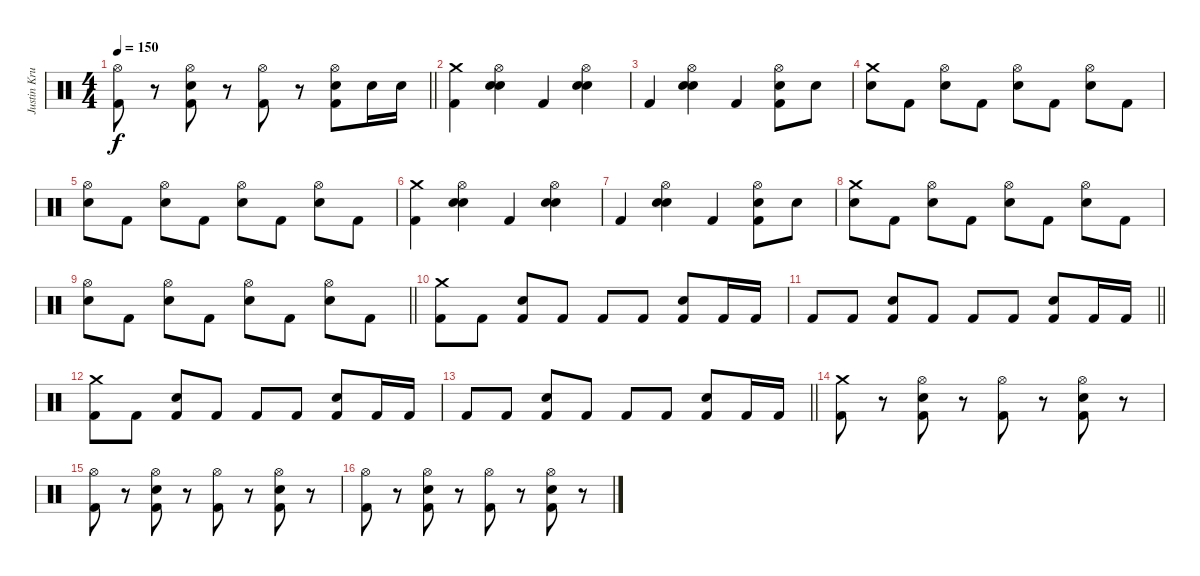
\track ("Justin Kruger" "Justin Kru") {instrument percussion}
\staff {score}
\articulation defaults
\ts (4 4)
\tempo 150
\clef neutral
\barLineRight lightlight
\ks c
("Hi-Hat (open)" "Kick (hit) 2").8{dy f} r.8 ("Hi-Hat (open)" "Snare (hit) 2" "Kick (hit) 2").8 r.8 ("Hi-Hat (open)" "Kick (hit) 2").8 r.8 ("Hi-Hat (open)" "Snare (hit) 2" "Kick (hit) 2").8 "Snare (hit) 2".16 "Snare (hit) 2".16 |
\section ("" "")
("Crash medium (hit)" "Kick (hit) 2").4 ("Hi-Hat (open)" "Snare (hit) 2" "Snare (hit) 2").4 "Kick (hit) 2".4 ("Hi-Hat (open)" "Snare (hit) 2" "Snare (hit) 2").4 |
"Kick (hit) 2".4 ("Hi-Hat (open)" "Snare (hit) 2" "Snare (hit) 2").4 "Kick (hit) 2".4 ("Hi-Hat (open)" "Snare (hit) 2" "Kick (hit) 2").8 "Snare (hit) 2".8 |
("Crash medium (hit)" "Snare (hit) 2").8 "Kick (hit) 2".8 ("Hi-Hat (open)" "Snare (hit) 2").8 "Kick (hit) 2".8 ("Hi-Hat (open)" "Snare (hit) 2").8 "Kick (hit) 2".8 ("Hi-Hat (open)" "Snare (hit) 2").8 "Kick (hit) 2".8 |
("Hi-Hat (open)" "Snare (hit) 2").8 "Kick (hit) 2".8 ("Hi-Hat (open)" "Snare (hit) 2").8 "Kick (hit) 2".8 ("Hi-Hat (open)" "Snare (hit) 2").8 "Kick (hit) 2".8 ("Hi-Hat (open)" "Snare (hit) 2").8 "Kick (hit) 2".8 |
("Crash medium (hit)" "Kick (hit) 2").4 ("Hi-Hat (open)" "Snare (hit) 2" "Snare (hit) 2").4 "Kick (hit) 2".4 ("Hi-Hat (open)" "Snare (hit) 2" "Snare (hit) 2").4 |
"Kick (hit) 2".4 ("Hi-Hat (open)" "Snare (hit) 2" "Snare (hit) 2").4 "Kick (hit) 2".4 ("Hi-Hat (open)" "Snare (hit) 2" "Kick (hit) 2").8 "Snare (hit) 2".8 |
("Crash medium (hit)" "Snare (hit) 2").8 "Kick (hit) 2".8 ("Hi-Hat (open)" "Snare (hit) 2").8 "Kick (hit) 2".8 ("Hi-Hat (open)" "Snare (hit) 2").8 "Kick (hit) 2".8 ("Hi-Hat (open)" "Snare (hit) 2").8 "Kick (hit) 2".8 |
\barLineRight lightlight
("Hi-Hat (open)" "Snare (hit) 2").8 "Kick (hit) 2".8 ("Hi-Hat (open)" "Snare (hit) 2").8 "Kick (hit) 2".8 ("Hi-Hat (open)" "Snare (hit) 2").8 "Kick (hit) 2".8 ("Hi-Hat (open)" "Snare (hit) 2").8 "Kick (hit) 2".8 |
\section ("" "")
("Crash medium (hit)" "Kick (hit) 2").8 "Kick (hit) 2".8 ("Electric Snare (hit)" "Kick (hit) 2").8 "Kick (hit) 2".8 "Kick (hit) 2".8 "Kick (hit) 2".8 ("Electric Snare (hit)" "Kick (hit) 2").8 "Kick (hit) 2".16 "Kick (hit) 2".16 |
\barLineRight lightlight "Kick (hit) 2".8 "Kick (hit) 2".8
("Electric Snare (hit)" "Kick (hit) 2").8 "Kick (hit) 2".8 "Kick (hit) 2".8 "Kick (hit) 2".8 ("Electric Snare (hit)" "Kick (hit) 2").8 "Kick (hit) 2".16 "Kick (hit) 2".16 |
\section ("" "")
("Crash medium (hit)" "Kick (hit) 2").8 "Kick (hit) 2".8 ("Electric Snare (hit)" "Kick (hit) 2").8 "Kick (hit) 2".8 "Kick (hit) 2".8 "Kick (hit) 2".8 ("Electric Snare (hit)" "Kick (hit) 2").8 "Kick (hit) 2".16 "Kick (hit) 2".16 |
\barLineRight lightlight "Kick (hit) 2".8 "Kick (hit) 2".8
("Electric Snare (hit)" "Kick (hit) 2").8 "Kick (hit) 2".8 "Kick (hit) 2".8 "Kick (hit) 2".8 ("Electric Snare (hit)" "Kick (hit) 2").8 "Kick (hit) 2".16 "Kick (hit) 2".16 |
\section ("" "")
("Crash medium (hit)" "Kick (hit) 2").8 r.8 ("Hi-Hat (open)" "Snare (hit) 2" "Kick (hit) 2").8 r.8 ("Hi-Hat (open)" "Kick (hit) 2").8 r.8 ("Hi-Hat (open)" "Snare (hit) 2" "Kick (hit) 2").8 r.8 |
("Hi-Hat (open)" "Kick (hit) 2").8 r.8 ("Hi-Hat (open)" "Snare (hit) 2" "Kick (hit) 2").8 r.8 ("Hi-Hat (open)" "Kick (hit) 2").8 r.8 ("Hi-Hat (open)" "Snare (hit) 2" "Kick (hit) 2").8 r.8 |
("Hi-Hat (open)" "Kick (hit) 2").8 r.8 ("Hi-Hat (open)" "Snare (hit) 2" "Kick (hit) 2").8 r.8 ("Hi-Hat (open)" "Kick (hit) 2").8 r.8 ("Hi-Hat (open)" "Snare (hit) 2" "Kick (hit) 2").8 r.8
